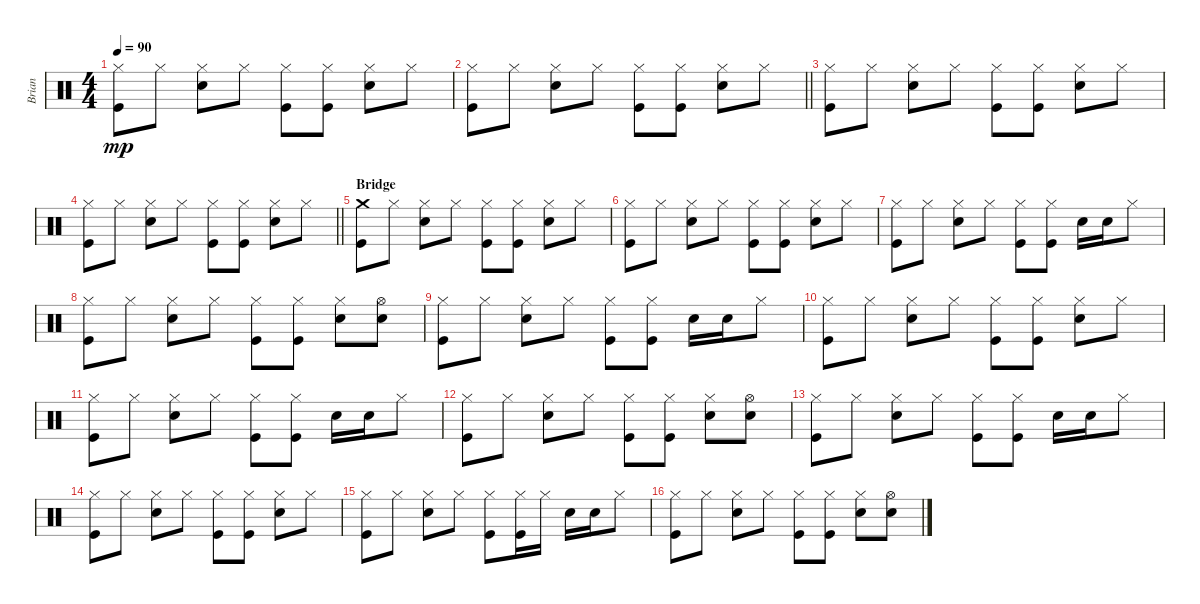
\track ("Brian" "Brian") {instrument percussion}
\staff {score}
\articulation defaults
\ts (4 4)
\tempo 90
\clef neutral
\ks c
("Hi-Hat (closed)" "Kick (hit)").8{dy mp} "Hi-Hat (closed)".8 ("Hi-Hat (closed)" "Snare (hit) 2").8 "Hi-Hat (closed)".8 ("Hi-Hat (closed)" "Kick (hit)").8 ("Hi-Hat (closed)" "Kick (hit)").8 ("Hi-Hat (closed)" "Snare (hit) 2").8 "Hi-Hat (closed)".8 |
\barLineRight lightlight
("Hi-Hat (closed)" "Kick (hit)").8 "Hi-Hat (closed)".8 ("Hi-Hat (closed)" "Snare (hit) 2").8 "Hi-Hat (closed)".8 ("Hi-Hat (closed)" "Kick (hit)").8 ("Hi-Hat (closed)" "Kick (hit)").8 ("Hi-Hat (closed)" "Snare (hit) 2").8 "Hi-Hat (closed)".8 |
\section ("" "")
("Hi-Hat (closed)" "Kick (hit)").8 "Hi-Hat (closed)".8 ("Hi-Hat (closed)" "Snare (hit) 2").8 "Hi-Hat (closed)".8 ("Hi-Hat (closed)" "Kick (hit)").8 ("Hi-Hat (closed)" "Kick (hit)").8 ("Hi-Hat (closed)" "Snare (hit) 2").8 "Hi-Hat (closed)".8 |
\barLineRight lightlight
("Hi-Hat (closed)" "Kick (hit)").8 "Hi-Hat (closed)".8 ("Hi-Hat (closed)" "Snare (hit) 2").8 "Hi-Hat (closed)".8 ("Hi-Hat (closed)" "Kick (hit)").8 ("Hi-Hat (closed)" "Kick (hit)").8 ("Hi-Hat (closed)" "Snare (hit) 2").8 "Hi-Hat (closed)".8 |
\section ("" "Bridge")
("Crash medium (hit)" "Kick (hit)").8 "Hi-Hat (closed)".8 ("Hi-Hat (closed)" "Snare (hit) 2").8 "Hi-Hat (closed)".8 ("Hi-Hat (closed)" "Kick (hit)").8 ("Hi-Hat (closed)" "Kick (hit)").8 ("Hi-Hat (closed)" "Snare (hit) 2").8 "Hi-Hat (closed)".8 |
("Hi-Hat (closed)" "Kick (hit)").8 "Hi-Hat (closed)".8 ("Hi-Hat (closed)" "Snare (hit) 2").8 "Hi-Hat (closed)".8 ("Hi-Hat (closed)" "Kick (hit)").8 ("Hi-Hat (closed)" "Kick (hit)").8 ("Hi-Hat (closed)" "Snare (hit) 2").8 "Hi-Hat (closed)".8 |
("Hi-Hat (closed)" "Kick (hit)").8 "Hi-Hat (closed)".8 ("Hi-Hat (closed)" "Snare (hit) 2").8 "Hi-Hat (closed)".8 ("Hi-Hat (closed)" "Kick (hit)").8 ("Hi-Hat (closed)" "Kick (hit)").8 "Snare (hit) 2".16 "Snare (hit) 2".16 "Hi-Hat (closed)".8 |
("Hi-Hat (closed)" "Kick (hit)").8 "Hi-Hat (closed)".8 ("Hi-Hat (closed)" "Snare (hit) 2").8 "Hi-Hat (closed)".8 ("Hi-Hat (closed)" "Kick (hit)").8 ("Hi-Hat (closed)" "Kick (hit)").8 ("Hi-Hat (closed)" "Snare (hit) 2").8 ("Hi-Hat (open)" "Snare (hit) 2").8 |
("Hi-Hat (closed)" "Kick (hit)").8 "Hi-Hat (closed)".8 ("Hi-Hat (closed)" "Snare (hit) 2").8 "Hi-Hat (closed)".8 ("Hi-Hat (closed)" "Kick (hit)").8 ("Hi-Hat (closed)" "Kick (hit)").8 "Snare (hit) 2".16 "Snare (hit) 2".16 "Hi-Hat (closed)".8 |
("Hi-Hat (closed)" "Kick (hit)").8 "Hi-Hat (closed)".8 ("Hi-Hat (closed)" "Snare (hit) 2").8 "Hi-Hat (closed)".8 ("Hi-Hat (closed)" "Kick (hit)").8 ("Hi-Hat (closed)" "Kick (hit)").8 ("Hi-Hat (closed)" "Snare (hit) 2").8 "Hi-Hat (closed)".8 |
("Hi-Hat (closed)" "Kick (hit)").8 "Hi-Hat (closed)".8 ("Hi-Hat (closed)" "Snare (hit) 2").8 "Hi-Hat (closed)".8 ("Hi-Hat (closed)" "Kick (hit)").8 ("Hi-Hat (closed)" "Kick (hit)").8 "Snare (hit) 2".16 "Snare (hit) 2".16 "Hi-Hat (closed)".8 |
("Hi-Hat (closed)" "Kick (hit)").8 "Hi-Hat (closed)".8 ("Hi-Hat (closed)" "Snare (hit) 2").8 "Hi-Hat (closed)".8 ("Hi-Hat (closed)" "Kick (hit)").8 ("Hi-Hat (closed)" "Kick (hit)").8 ("Hi-Hat (closed)" "Snare (hit) 2").8 ("Hi-Hat (open)" "Snare (hit) 2").8 |
("Hi-Hat (closed)" "Kick (hit)").8 "Hi-Hat (closed)".8 ("Hi-Hat (closed)" "Snare (hit) 2").8 "Hi-Hat (closed)".8 ("Hi-Hat (closed)" "Kick (hit)").8 ("Hi-Hat (closed)" "Kick (hit)").8 "Snare (hit) 2".16 "Snare (hit) 2".16 "Hi-Hat (closed)".8 |
("Hi-Hat (closed)" "Kick (hit)").8 "Hi-Hat (closed)".8 ("Hi-Hat (closed)" "Snare (hit) 2").8 "Hi-Hat (closed)".8 ("Hi-Hat (closed)" "Kick (hit)").8 ("Hi-Hat (closed)" "Kick (hit)").8 ("Hi-Hat (closed)" "Snare (hit) 2").8 "Hi-Hat (closed)".8 |
("Hi-Hat (closed)" "Kick (hit)").8 "Hi-Hat (closed)".8 ("Hi-Hat (closed)" "Snare (hit) 2").8 "Hi-Hat (closed)".8 ("Hi-Hat (closed)" "Kick (hit)").8 ("Hi-Hat (closed)" "Kick (hit)").16 "Hi-Hat (closed)".16 "Snare (hit) 2".16 "Snare (hit) 2".16 "Hi-Hat (closed)".8 |
("Hi-Hat (closed)" "Kick (hit)").8 "Hi-Hat (closed)".8 ("Hi-Hat (closed)" "Snare (hit) 2").8 "Hi-Hat (closed)".8 ("Hi-Hat (closed)" "Kick (hit)").8 ("Hi-Hat (closed)" "Kick (hit)").8 ("Hi-Hat (closed)" "Snare (hit) 2").8 ("Hi-Hat (open)" "Snare (hit) 2").8
